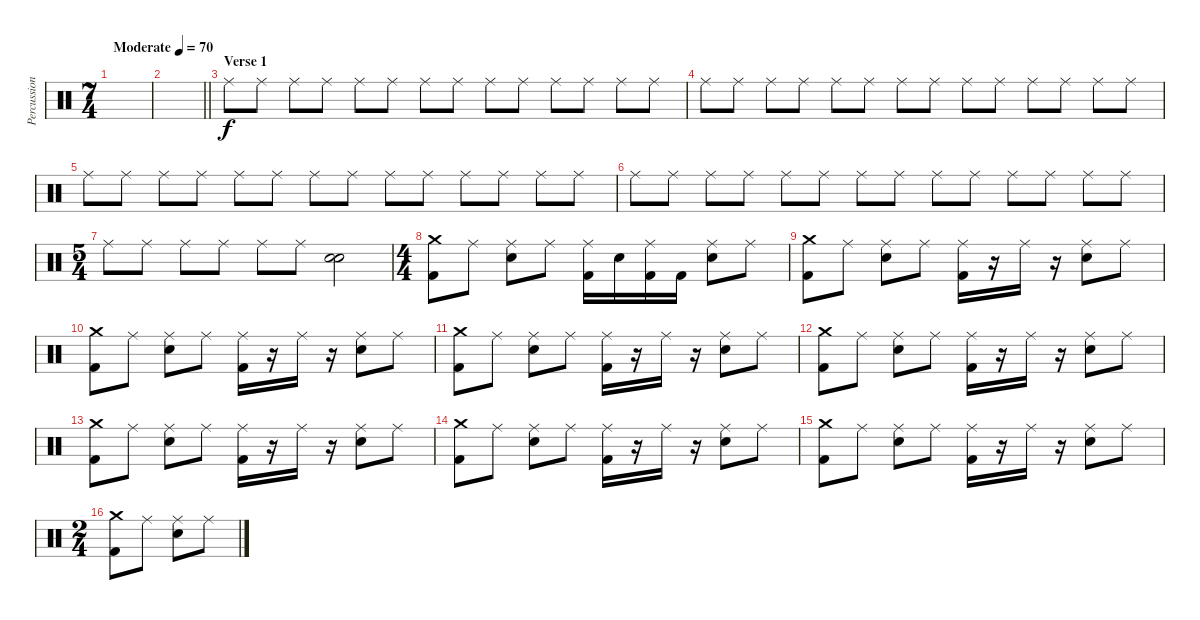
\track ("Percussion" "Percussion") {instrument percussion}
\staff {score}
\articulation defaults
\ts (7 4)
\tempo (70 "Moderate")
\clef neutral
\ks c
|
\barLineRight lightlight
|
\section ("" "Verse 1")
"Ride (middle)".8 "Ride (middle)".8 "Ride (middle)".8 "Ride (middle)".8 "Ride (middle)".8 "Ride (middle)".8 "Ride (middle)".8 "Ride (middle)".8 "Ride (middle)".8 "Ride (middle)".8 "Ride (middle)".8 "Ride (middle)".8 "Ride (middle)".8 "Ride (middle)".8 |
"Ride (middle)".8 "Ride (middle)".8 "Ride (middle)".8 "Ride (middle)".8 "Ride (middle)".8 "Ride (middle)".8 "Ride (middle)".8 "Ride (middle)".8 "Ride (middle)".8 "Ride (middle)".8 "Ride (middle)".8 "Ride (middle)".8 "Ride (middle)".8 "Ride (middle)".8 |
"Ride (middle)".8 "Ride (middle)".8 "Ride (middle)".8 "Ride (middle)".8 "Ride (middle)".8 "Ride (middle)".8 "Ride (middle)".8 "Ride (middle)".8 "Ride (middle)".8 "Ride (middle)".8 "Ride (middle)".8 "Ride (middle)".8 "Ride (middle)".8 "Ride (middle)".8 |
"Ride (middle)".8 "Ride (middle)".8 "Ride (middle)".8 "Ride (middle)".8 "Ride (middle)".8 "Ride (middle)".8 "Ride (middle)".8 "Ride (middle)".8 "Ride (middle)".8 "Ride (middle)".8 "Ride (middle)".8 "Ride (middle)".8 "Ride (middle)".8 "Ride (middle)".8 |
\ts (5 4)
"Ride (middle)".8 "Ride (middle)".8 "Ride (middle)".8 "Ride (middle)".8 "Ride (middle)".8 "Ride (middle)".8 ("Electric Snare (hit)" "Electric Snare (hit)").2 |
\ts (4 4)
("Crash medium (hit)" "Kick (hit) 2").8 "Ride (middle)".8 ("Ride (middle)" "Electric Snare (hit)").8 "Ride (middle)".8 ("Ride (middle)" "Kick (hit) 2").16 "Electric Snare (hit)".16 ("Ride (middle)" "Kick (hit) 2").16 "Kick (hit) 2".16 ("Ride (middle)" "Electric Snare (hit)").8 "Ride (middle)".8 |
("Crash medium (hit)" "Kick (hit) 2").8 "Ride (middle)".8 ("Ride (middle)" "Electric Snare (hit)").8 "Ride (middle)".8 ("Ride (middle)" "Kick (hit) 2").16 r.16 "Ride (middle)".16 r.16 ("Ride (middle)" "Electric Snare (hit)").8 "Ride (middle)".8 |
("Crash medium (hit)" "Kick (hit) 2").8 "Ride (middle)".8 ("Ride (middle)" "Electric Snare (hit)").8 "Ride (middle)".8 ("Ride (middle)" "Kick (hit) 2").16 r.16 "Ride (middle)".16 r.16 ("Ride (middle)" "Electric Snare (hit)").8 "Ride (middle)".8 |
("Crash medium (hit)" "Kick (hit) 2").8 "Ride (middle)".8 ("Ride (middle)" "Electric Snare (hit)").8 "Ride (middle)".8 ("Ride (middle)" "Kick (hit) 2").16 r.16 "Ride (middle)".16 r.16 ("Ride (middle)" "Electric Snare (hit)").8 "Ride (middle)".8 |
("Crash medium (hit)" "Kick (hit) 2").8 "Ride (middle)".8 ("Ride (middle)" "Electric Snare (hit)").8 "Ride (middle)".8 ("Ride (middle)" "Kick (hit) 2").16 r.16 "Ride (middle)".16 r.16 ("Ride (middle)" "Electric Snare (hit)").8 "Ride (middle)".8 |
("Crash medium (hit)" "Kick (hit) 2").8 "Ride (middle)".8 ("Ride (middle)" "Electric Snare (hit)").8 "Ride (middle)".8 ("Ride (middle)" "Kick (hit) 2").16 r.16 "Ride (middle)".16 r.16 ("Ride (middle)" "Electric Snare (hit)").8 "Ride (middle)".8 |
("Crash medium (hit)" "Kick (hit) 2").8 "Ride (middle)".8 ("Ride (middle)" "Electric Snare (hit)").8 "Ride (middle)".8 ("Ride (middle)" "Kick (hit) 2").16 r.16 "Ride (middle)".16 r.16 ("Ride (middle)" "Electric Snare (hit)").8 "Ride (middle)".8 |
("Crash medium (hit)" "Kick (hit) 2").8 "Ride (middle)".8 ("Ride (middle)" "Electric Snare (hit)").8 "Ride (middle)".8 ("Ride (middle)" "Kick (hit) 2").16 r.16 "Ride (middle)".16 r.16 ("Ride (middle)" "Electric Snare (hit)").8 "Ride (middle)".8 |
\ts (2 4)
("Crash medium (hit)" "Kick (hit) 2").8 "Ride (middle)".8 ("Ride (middle)" "Electric Snare (hit)").8 "Ride (middle)".8
